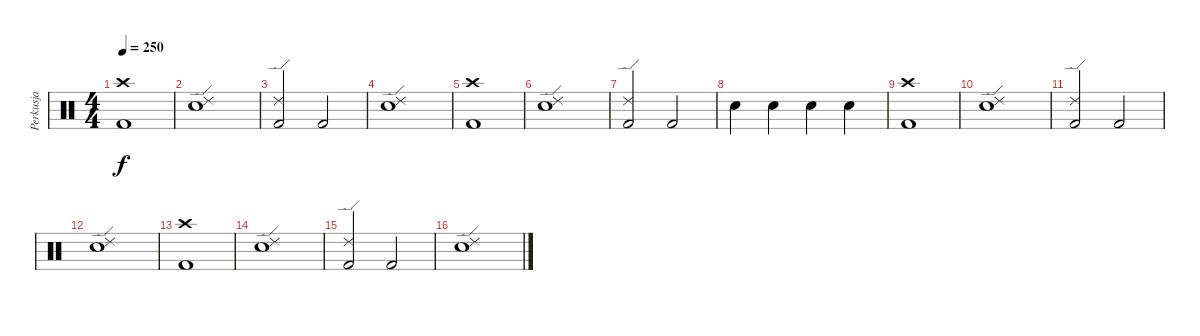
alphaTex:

\track ("Perkusja" "Perkusja") {instrument percussion}
\staff {score}
\articulation defaults
\ts (4 4)
\tempo 250
\clef neutral
\ks c
("Crash high (hit)" "Kick (hit) 2").1{dy f} |
("Ride (edge) 2" "Snare (hit) 2").1 |
("Ride (edge) 2" "Kick (hit) 2").2 "Kick (hit) 2".2 |
("Ride (edge) 2" "Snare (hit) 2").1 |
("Crash high (hit)" "Kick (hit) 2").1 |
("Ride (edge) 2" "Snare (hit) 2").1 |
("Ride (edge) 2" "Kick (hit) 2").2 "Kick (hit) 2".2 |
"Snare (hit) 2".4 "Snare (hit) 2".4 "Snare (hit) 2".4 "Snare (hit) 2".4 |
("Crash high (hit)" "Kick (hit) 2").1 |
("Ride (edge) 2" "Snare (hit) 2").1 |
("Ride (edge) 2" "Kick (hit) 2").2 "Kick (hit) 2".2 |
("Ride (edge) 2" "Snare (hit) 2").1 |
("Crash high (hit)" "Kick (hit) 2").1 |
("Ride (edge) 2" "Snare (hit) 2").1 |
("Ride (edge) 2" "Kick (hit) 2").2 "Kick (hit) 2".2 |
("Ride (edge) 2" "Snare (hit) 2").1
